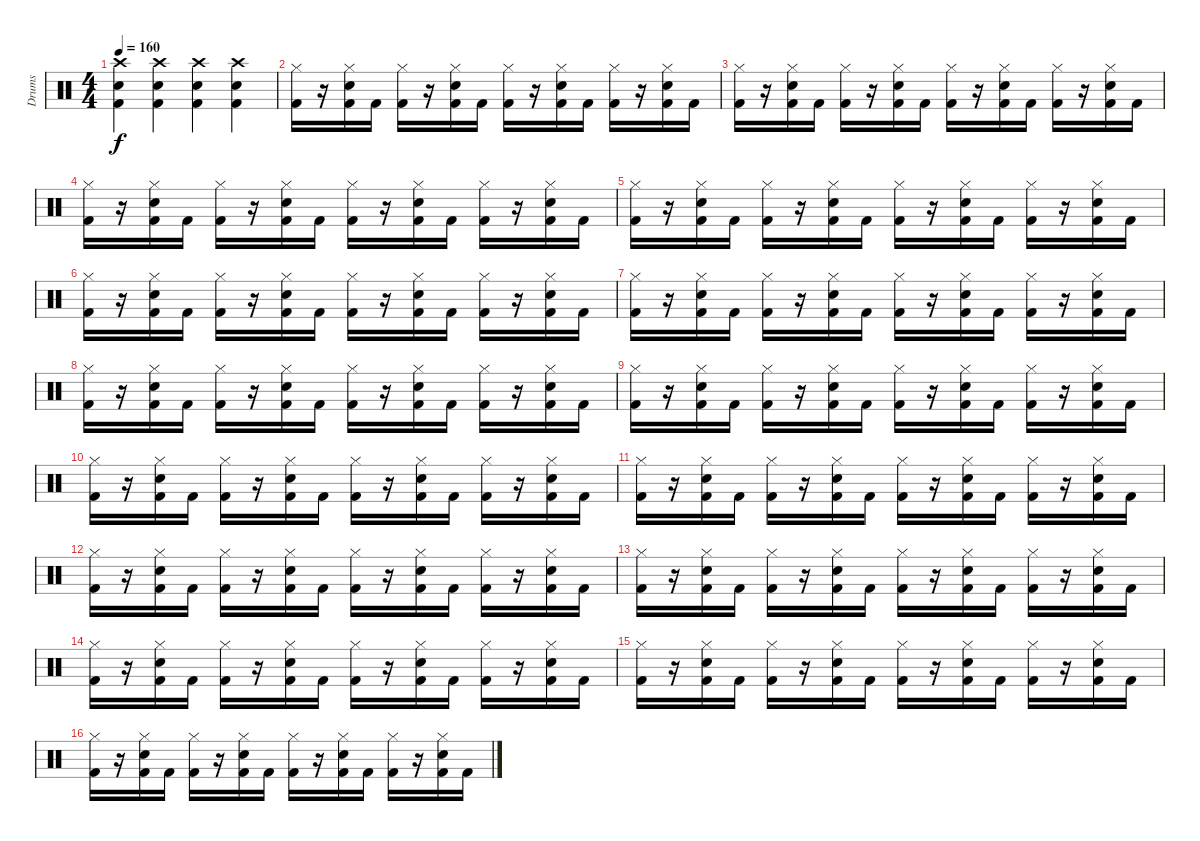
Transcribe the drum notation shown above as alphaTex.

\track ("Drums" "Drums") {instrument percussion}
\staff {score}
\articulation defaults
\ts (4 4)
\tempo 160
\clef neutral
\ks c
("Electric Snare (hit)" "Kick (hit) 2" "Crash high (hit)").4{dy f} ("Electric Snare (hit)" "Kick (hit) 2" "Crash high (hit)").4 ("Electric Snare (hit)" "Kick (hit) 2" "Crash high (hit)").4 ("Electric Snare (hit)" "Kick (hit) 2" "Crash high (hit)").4 |
("Kick (hit) 2" "Hi-Hat (closed)").16 r.16 ("Kick (hit) 2" "Hi-Hat (closed)" "Electric Snare (hit)").16 "Kick (hit) 2".16 ("Kick (hit) 2" "Hi-Hat (closed)").16 r.16 ("Kick (hit) 2" "Hi-Hat (closed)" "Electric Snare (hit)").16 "Kick (hit) 2".16 ("Kick (hit) 2" "Hi-Hat (closed)").16 r.16 ("Kick (hit) 2" "Hi-Hat (closed)" "Electric Snare (hit)").16 "Kick (hit) 2".16 ("Kick (hit) 2" "Hi-Hat (closed)").16 r.16 ("Kick (hit) 2" "Hi-Hat (closed)" "Electric Snare (hit)").16 "Kick (hit) 2".16 |
("Kick (hit) 2" "Hi-Hat (closed)").16 r.16 ("Kick (hit) 2" "Hi-Hat (closed)" "Electric Snare (hit)").16 "Kick (hit) 2".16 ("Kick (hit) 2" "Hi-Hat (closed)").16 r.16 ("Kick (hit) 2" "Hi-Hat (closed)" "Electric Snare (hit)").16 "Kick (hit) 2".16 ("Kick (hit) 2" "Hi-Hat (closed)").16 r.16 ("Kick (hit) 2" "Hi-Hat (closed)" "Electric Snare (hit)").16 "Kick (hit) 2".16 ("Kick (hit) 2" "Hi-Hat (closed)").16 r.16 ("Kick (hit) 2" "Hi-Hat (closed)" "Electric Snare (hit)").16 "Kick (hit) 2".16 |
("Kick (hit) 2" "Hi-Hat (closed)").16 r.16 ("Kick (hit) 2" "Hi-Hat (closed)" "Electric Snare (hit)").16 "Kick (hit) 2".16 ("Kick (hit) 2" "Hi-Hat (closed)").16 r.16 ("Kick (hit) 2" "Hi-Hat (closed)" "Electric Snare (hit)").16 "Kick (hit) 2".16 ("Kick (hit) 2" "Hi-Hat (closed)").16 r.16 ("Kick (hit) 2" "Hi-Hat (closed)" "Electric Snare (hit)").16 "Kick (hit) 2".16 ("Kick (hit) 2" "Hi-Hat (closed)").16 r.16 ("Kick (hit) 2" "Hi-Hat (closed)" "Electric Snare (hit)").16 "Kick (hit) 2".16 |
("Kick (hit) 2" "Hi-Hat (closed)").16 r.16 ("Kick (hit) 2" "Hi-Hat (closed)" "Electric Snare (hit)").16 "Kick (hit) 2".16 ("Kick (hit) 2" "Hi-Hat (closed)").16 r.16 ("Kick (hit) 2" "Hi-Hat (closed)" "Electric Snare (hit)").16 "Kick (hit) 2".16 ("Kick (hit) 2" "Hi-Hat (closed)").16 r.16 ("Kick (hit) 2" "Hi-Hat (closed)" "Electric Snare (hit)").16 "Kick (hit) 2".16 ("Kick (hit) 2" "Hi-Hat (closed)").16 r.16 ("Kick (hit) 2" "Hi-Hat (closed)" "Electric Snare (hit)").16 "Kick (hit) 2".16 |
("Kick (hit) 2" "Hi-Hat (closed)").16 r.16 ("Kick (hit) 2" "Hi-Hat (closed)" "Electric Snare (hit)").16 "Kick (hit) 2".16 ("Kick (hit) 2" "Hi-Hat (closed)").16 r.16 ("Kick (hit) 2" "Hi-Hat (closed)" "Electric Snare (hit)").16 "Kick (hit) 2".16 ("Kick (hit) 2" "Hi-Hat (closed)").16 r.16 ("Kick (hit) 2" "Hi-Hat (closed)" "Electric Snare (hit)").16 "Kick (hit) 2".16 ("Kick (hit) 2" "Hi-Hat (closed)").16 r.16 ("Kick (hit) 2" "Hi-Hat (closed)" "Electric Snare (hit)").16 "Kick (hit) 2".16 |
("Kick (hit) 2" "Hi-Hat (closed)").16 r.16 ("Kick (hit) 2" "Hi-Hat (closed)" "Electric Snare (hit)").16 "Kick (hit) 2".16 ("Kick (hit) 2" "Hi-Hat (closed)").16 r.16 ("Kick (hit) 2" "Hi-Hat (closed)" "Electric Snare (hit)").16 "Kick (hit) 2".16 ("Kick (hit) 2" "Hi-Hat (closed)").16 r.16 ("Kick (hit) 2" "Hi-Hat (closed)" "Electric Snare (hit)").16 "Kick (hit) 2".16 ("Kick (hit) 2" "Hi-Hat (closed)").16 r.16 ("Kick (hit) 2" "Hi-Hat (closed)" "Electric Snare (hit)").16 "Kick (hit) 2".16 |
("Kick (hit) 2" "Hi-Hat (closed)").16 r.16 ("Kick (hit) 2" "Hi-Hat (closed)" "Electric Snare (hit)").16 "Kick (hit) 2".16 ("Kick (hit) 2" "Hi-Hat (closed)").16 r.16 ("Kick (hit) 2" "Hi-Hat (closed)" "Electric Snare (hit)").16 "Kick (hit) 2".16 ("Kick (hit) 2" "Hi-Hat (closed)").16 r.16 ("Kick (hit) 2" "Hi-Hat (closed)" "Electric Snare (hit)").16 "Kick (hit) 2".16 ("Kick (hit) 2" "Hi-Hat (closed)").16 r.16 ("Kick (hit) 2" "Hi-Hat (closed)" "Electric Snare (hit)").16 "Kick (hit) 2".16 |
("Kick (hit) 2" "Hi-Hat (closed)").16 r.16 ("Kick (hit) 2" "Hi-Hat (closed)" "Electric Snare (hit)").16 "Kick (hit) 2".16 ("Kick (hit) 2" "Hi-Hat (closed)").16 r.16 ("Kick (hit) 2" "Hi-Hat (closed)" "Electric Snare (hit)").16 "Kick (hit) 2".16 ("Kick (hit) 2" "Hi-Hat (closed)").16 r.16 ("Kick (hit) 2" "Hi-Hat (closed)" "Electric Snare (hit)").16 "Kick (hit) 2".16 ("Kick (hit) 2" "Hi-Hat (closed)").16 r.16 ("Kick (hit) 2" "Hi-Hat (closed)" "Electric Snare (hit)").16 "Kick (hit) 2".16 |
("Kick (hit) 2" "Hi-Hat (closed)").16 r.16 ("Kick (hit) 2" "Hi-Hat (closed)" "Electric Snare (hit)").16 "Kick (hit) 2".16 ("Kick (hit) 2" "Hi-Hat (closed)").16 r.16 ("Kick (hit) 2" "Hi-Hat (closed)" "Electric Snare (hit)").16 "Kick (hit) 2".16 ("Kick (hit) 2" "Hi-Hat (closed)").16 r.16 ("Kick (hit) 2" "Hi-Hat (closed)" "Electric Snare (hit)").16 "Kick (hit) 2".16 ("Kick (hit) 2" "Hi-Hat (closed)").16 r.16 ("Kick (hit) 2" "Hi-Hat (closed)" "Electric Snare (hit)").16 "Kick (hit) 2".16 |
("Kick (hit) 2" "Hi-Hat (closed)").16 r.16 ("Kick (hit) 2" "Hi-Hat (closed)" "Electric Snare (hit)").16 "Kick (hit) 2".16 ("Kick (hit) 2" "Hi-Hat (closed)").16 r.16 ("Kick (hit) 2" "Hi-Hat (closed)" "Electric Snare (hit)").16 "Kick (hit) 2".16 ("Kick (hit) 2" "Hi-Hat (closed)").16 r.16 ("Kick (hit) 2" "Hi-Hat (closed)" "Electric Snare (hit)").16 "Kick (hit) 2".16 ("Kick (hit) 2" "Hi-Hat (closed)").16 r.16 ("Kick (hit) 2" "Hi-Hat (closed)" "Electric Snare (hit)").16 "Kick (hit) 2".16 |
("Kick (hit) 2" "Hi-Hat (closed)").16 r.16 ("Kick (hit) 2" "Hi-Hat (closed)" "Electric Snare (hit)").16 "Kick (hit) 2".16 ("Kick (hit) 2" "Hi-Hat (closed)").16 r.16 ("Kick (hit) 2" "Hi-Hat (closed)" "Electric Snare (hit)").16 "Kick (hit) 2".16 ("Kick (hit) 2" "Hi-Hat (closed)").16 r.16 ("Kick (hit) 2" "Hi-Hat (closed)" "Electric Snare (hit)").16 "Kick (hit) 2".16 ("Kick (hit) 2" "Hi-Hat (closed)").16 r.16 ("Kick (hit) 2" "Hi-Hat (closed)" "Electric Snare (hit)").16 "Kick (hit) 2".16 |
("Kick (hit) 2" "Hi-Hat (closed)").16 r.16 ("Kick (hit) 2" "Hi-Hat (closed)" "Electric Snare (hit)").16 "Kick (hit) 2".16 ("Kick (hit) 2" "Hi-Hat (closed)").16 r.16 ("Kick (hit) 2" "Hi-Hat (closed)" "Electric Snare (hit)").16 "Kick (hit) 2".16 ("Kick (hit) 2" "Hi-Hat (closed)").16 r.16 ("Kick (hit) 2" "Hi-Hat (closed)" "Electric Snare (hit)").16 "Kick (hit) 2".16 ("Kick (hit) 2" "Hi-Hat (closed)").16 r.16 ("Kick (hit) 2" "Hi-Hat (closed)" "Electric Snare (hit)").16 "Kick (hit) 2".16 |
("Kick (hit) 2" "Hi-Hat (closed)").16 r.16 ("Kick (hit) 2" "Hi-Hat (closed)" "Electric Snare (hit)").16 "Kick (hit) 2".16 ("Kick (hit) 2" "Hi-Hat (closed)").16 r.16 ("Kick (hit) 2" "Hi-Hat (closed)" "Electric Snare (hit)").16 "Kick (hit) 2".16 ("Kick (hit) 2" "Hi-Hat (closed)").16 r.16 ("Kick (hit) 2" "Hi-Hat (closed)" "Electric Snare (hit)").16 "Kick (hit) 2".16 ("Kick (hit) 2" "Hi-Hat (closed)").16 r.16 ("Kick (hit) 2" "Hi-Hat (closed)" "Electric Snare (hit)").16 "Kick (hit) 2".16 |
("Kick (hit) 2" "Hi-Hat (closed)").16 r.16 ("Kick (hit) 2" "Hi-Hat (closed)" "Electric Snare (hit)").16 "Kick (hit) 2".16 ("Kick (hit) 2" "Hi-Hat (closed)").16 r.16 ("Kick (hit) 2" "Hi-Hat (closed)" "Electric Snare (hit)").16 "Kick (hit) 2".16 ("Kick (hit) 2" "Hi-Hat (closed)").16 r.16 ("Kick (hit) 2" "Hi-Hat (closed)" "Electric Snare (hit)").16 "Kick (hit) 2".16 ("Kick (hit) 2" "Hi-Hat (closed)").16 r.16 ("Kick (hit) 2" "Hi-Hat (closed)" "Electric Snare (hit)").16 "Kick (hit) 2".16 |
("Kick (hit) 2" "Hi-Hat (closed)").16 r.16 ("Kick (hit) 2" "Hi-Hat (closed)" "Electric Snare (hit)").16 "Kick (hit) 2".16 ("Kick (hit) 2" "Hi-Hat (closed)").16 r.16 ("Kick (hit) 2" "Hi-Hat (closed)" "Electric Snare (hit)").16 "Kick (hit) 2".16 ("Kick (hit) 2" "Hi-Hat (closed)").16 r.16 ("Kick (hit) 2" "Hi-Hat (closed)" "Electric Snare (hit)").16 "Kick (hit) 2".16 ("Kick (hit) 2" "Hi-Hat (closed)").16 r.16 ("Kick (hit) 2" "Hi-Hat (closed)" "Electric Snare (hit)").16 "Kick (hit) 2".16
